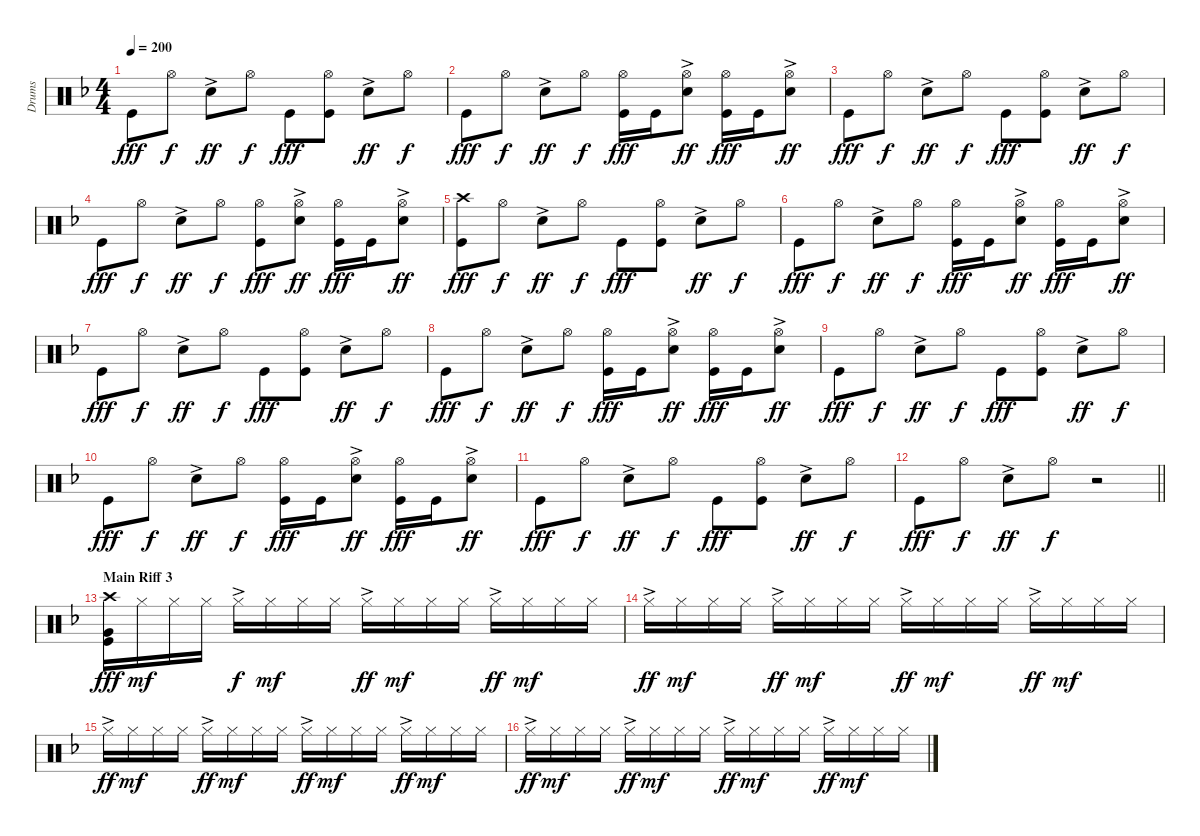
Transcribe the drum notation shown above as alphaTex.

\track ("Drums" "Drums") {instrument percussion bank 25}
\staff {score}
\articulation defaults
\ts (4 4)
\tempo 200
\clef neutral
\ks dminor "Kick (hit)".8{dy fff} "Hi-Hat (open)".8{dy f} "Snare (hit) 2"{ac}.8{dy ff} "Hi-Hat (open)".8{dy f} "Kick (hit)".8{dy fff}
("Hi-Hat (open)" "Kick (hit)").8 "Snare (hit) 2"{ac}.8{dy ff} "Hi-Hat (open)".8{dy f} |
"Kick (hit)".8{dy fff} "Hi-Hat (open)".8{dy f} "Snare (hit) 2"{ac}.8{dy ff} "Hi-Hat (open)".8{dy f} ("Hi-Hat (open)" "Kick (hit)").16{dy fff} "Kick (hit)".16 ("Hi-Hat (open)" "Snare (hit) 2"{ac}).8{dy ff} ("Hi-Hat (open)" "Kick (hit)").16{dy fff} "Kick (hit)".16 ("Hi-Hat (open)" "Snare (hit) 2"{ac}).8{dy ff} |
"Kick (hit)".8{dy fff} "Hi-Hat (open)".8{dy f} "Snare (hit) 2"{ac}.8{dy ff} "Hi-Hat (open)".8{dy f} "Kick (hit)".8{dy fff} ("Hi-Hat (open)" "Kick (hit)").8 "Snare (hit) 2"{ac}.8{dy ff} "Hi-Hat (open)".8{dy f} |
"Kick (hit)".8{dy fff} "Hi-Hat (open)".8{dy f} "Snare (hit) 2"{ac}.8{dy ff} "Hi-Hat (open)".8{dy f} ("Hi-Hat (open)" "Kick (hit)").8{dy fff} ("Hi-Hat (open)" "Snare (hit) 2"{ac}).8{dy ff} ("Hi-Hat (open)" "Kick (hit)").16{dy fff} "Kick (hit)".16 ("Hi-Hat (open)" "Snare (hit) 2"{ac}).8{dy ff} |
("Crash high (hit)" "Kick (hit)").8{dy fff} "Hi-Hat (open)".8{dy f} "Snare (hit) 2"{ac}.8{dy ff} "Hi-Hat (open)".8{dy f} "Kick (hit)".8{dy fff} ("Hi-Hat (open)" "Kick (hit)").8 "Snare (hit) 2"{ac}.8{dy ff} "Hi-Hat (open)".8{dy f} |
"Kick (hit)".8{dy fff} "Hi-Hat (open)".8{dy f} "Snare (hit) 2"{ac}.8{dy ff} "Hi-Hat (open)".8{dy f} ("Hi-Hat (open)" "Kick (hit)").16{dy fff} "Kick (hit)".16 ("Hi-Hat (open)" "Snare (hit) 2"{ac}).8{dy ff} ("Hi-Hat (open)" "Kick (hit)").16{dy fff} "Kick (hit)".16 ("Hi-Hat (open)" "Snare (hit) 2"{ac}).8{dy ff} |
"Kick (hit)".8{dy fff} "Hi-Hat (open)".8{dy f} "Snare (hit) 2"{ac}.8{dy ff} "Hi-Hat (open)".8{dy f} "Kick (hit)".8{dy fff} ("Hi-Hat (open)" "Kick (hit)").8 "Snare (hit) 2"{ac}.8{dy ff} "Hi-Hat (open)".8{dy f} |
"Kick (hit)".8{dy fff} "Hi-Hat (open)".8{dy f} "Snare (hit) 2"{ac}.8{dy ff} "Hi-Hat (open)".8{dy f} ("Hi-Hat (open)" "Kick (hit)").16{dy fff} "Kick (hit)".16 ("Hi-Hat (open)" "Snare (hit) 2"{ac}).8{dy ff} ("Hi-Hat (open)" "Kick (hit)").16{dy fff} "Kick (hit)".16 ("Hi-Hat (open)" "Snare (hit) 2"{ac}).8{dy ff} |
"Kick (hit)".8{dy fff} "Hi-Hat (open)".8{dy f} "Snare (hit) 2"{ac}.8{dy ff} "Hi-Hat (open)".8{dy f} "Kick (hit)".8{dy fff} ("Hi-Hat (open)" "Kick (hit)").8 "Snare (hit) 2"{ac}.8{dy ff} "Hi-Hat (open)".8{dy f} |
"Kick (hit)".8{dy fff} "Hi-Hat (open)".8{dy f} "Snare (hit) 2"{ac}.8{dy ff} "Hi-Hat (open)".8{dy f} ("Hi-Hat (open)" "Kick (hit)").16{dy fff} "Kick (hit)".16 ("Hi-Hat (open)" "Snare (hit) 2"{ac}).8{dy ff} ("Hi-Hat (open)" "Kick (hit)").16{dy fff} "Kick (hit)".16 ("Hi-Hat (open)" "Snare (hit) 2"{ac}).8{dy ff} |
"Kick (hit)".8{dy fff} "Hi-Hat (open)".8{dy f} "Snare (hit) 2"{ac}.8{dy ff} "Hi-Hat (open)".8{dy f} "Kick (hit)".8{dy fff} ("Hi-Hat (open)" "Kick (hit)").8 "Snare (hit) 2"{ac}.8{dy ff} "Hi-Hat (open)".8{dy f} |
\barLineRight lightlight "Kick (hit)".8{dy fff} "Hi-Hat (open)".8{dy f} "Snare (hit) 2"{ac}.8{dy ff} "Hi-Hat (open)".8{dy f}
r.2 |
\section ("" "Main Riff 3")
("Crash high (hit)" "Very Low Tom (hit)" "Kick (hit)").16{dy fff} "Hi-Hat (closed)".16{dy mf} "Hi-Hat (closed)".16 "Hi-Hat (closed)".16 "Hi-Hat (closed)"{ac}.16{dy f} "Hi-Hat (closed)".16{dy mf} "Hi-Hat (closed)".16 "Hi-Hat (closed)".16 "Hi-Hat (closed)"{ac}.16{dy ff} "Hi-Hat (closed)".16{dy mf} "Hi-Hat (closed)".16 "Hi-Hat (closed)".16 "Hi-Hat (closed)"{ac}.16{dy ff} "Hi-Hat (closed)".16{dy mf} "Hi-Hat (closed)".16 "Hi-Hat (closed)".16 |
"Hi-Hat (closed)"{ac}.16{dy ff} "Hi-Hat (closed)".16{dy mf} "Hi-Hat (closed)".16 "Hi-Hat (closed)".16 "Hi-Hat (closed)"{ac}.16{dy ff} "Hi-Hat (closed)".16{dy mf} "Hi-Hat (closed)".16 "Hi-Hat (closed)".16 "Hi-Hat (closed)"{ac}.16{dy ff} "Hi-Hat (closed)".16{dy mf} "Hi-Hat (closed)".16 "Hi-Hat (closed)".16 "Hi-Hat (closed)"{ac}.16{dy ff} "Hi-Hat (closed)".16{dy mf} "Hi-Hat (closed)".16 "Hi-Hat (closed)".16 |
"Hi-Hat (closed)"{ac}.16{dy ff} "Hi-Hat (closed)".16{dy mf} "Hi-Hat (closed)".16 "Hi-Hat (closed)".16 "Hi-Hat (closed)"{ac}.16{dy ff} "Hi-Hat (closed)".16{dy mf} "Hi-Hat (closed)".16 "Hi-Hat (closed)".16 "Hi-Hat (closed)"{ac}.16{dy ff} "Hi-Hat (closed)".16{dy mf} "Hi-Hat (closed)".16 "Hi-Hat (closed)".16 "Hi-Hat (closed)"{ac}.16{dy ff} "Hi-Hat (closed)".16{dy mf} "Hi-Hat (closed)".16 "Hi-Hat (closed)".16 |
"Hi-Hat (closed)"{ac}.16{dy ff} "Hi-Hat (closed)".16{dy mf} "Hi-Hat (closed)".16 "Hi-Hat (closed)".16 "Hi-Hat (closed)"{ac}.16{dy ff} "Hi-Hat (closed)".16{dy mf} "Hi-Hat (closed)".16 "Hi-Hat (closed)".16 "Hi-Hat (closed)"{ac}.16{dy ff} "Hi-Hat (closed)".16{dy mf} "Hi-Hat (closed)".16 "Hi-Hat (closed)".16 "Hi-Hat (closed)"{ac}.16{dy ff} "Hi-Hat (closed)".16{dy mf} "Hi-Hat (closed)".16 "Hi-Hat (closed)".16
